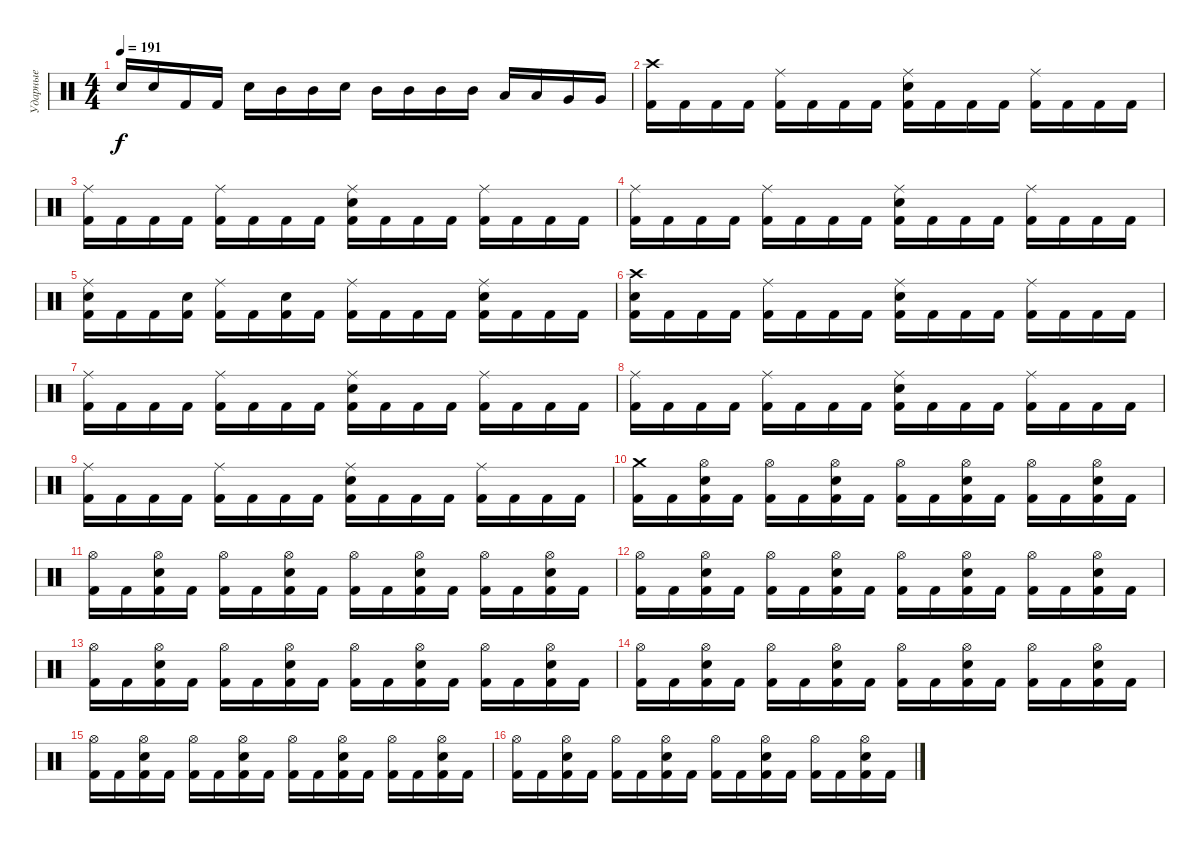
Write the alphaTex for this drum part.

\track ("Ударные" "Ударные") {instrument percussion}
\staff {score}
\articulation defaults
\ts (4 4)
\tempo 191
\clef neutral
\ks c "Snare (hit) 2".16{dy f} "Snare (hit) 2".16 "Kick (hit) 2".16 "Kick (hit) 2".16 "Snare (hit) 2".16 "Mid Tom (hit)".16 "Mid Tom (hit)".16 "Snare (hit) 2".16 "Mid Tom (hit)".16 "Mid Tom (hit)".16 "Mid Tom (hit)".16 "Mid Tom (hit)".16 "Low Tom (hit)".16 "Low Tom (hit)".16 "Very Low Tom (hit)".16 "Very Low Tom (hit)".16
|
("Crash high (hit)" "Kick (hit) 2").16 "Kick (hit) 2".16 "Kick (hit) 2".16 "Kick (hit) 2".16 ("Ride (middle)" "Kick (hit) 2").16 "Kick (hit) 2".16 "Kick (hit) 2".16 "Kick (hit) 2".16 ("Ride (middle)" "Snare (hit) 2" "Kick (hit) 2").16 "Kick (hit) 2".16 "Kick (hit) 2".16 "Kick (hit) 2".16 ("Ride (middle)" "Kick (hit) 2").16 "Kick (hit) 2".16 "Kick (hit) 2".16 "Kick (hit) 2".16 |
("Ride (middle)" "Kick (hit) 2").16 "Kick (hit) 2".16 "Kick (hit) 2".16 "Kick (hit) 2".16 ("Ride (middle)" "Kick (hit) 2").16 "Kick (hit) 2".16 "Kick (hit) 2".16 "Kick (hit) 2".16 ("Ride (middle)" "Snare (hit) 2" "Kick (hit) 2").16 "Kick (hit) 2".16 "Kick (hit) 2".16 "Kick (hit) 2".16 ("Ride (middle)" "Kick (hit) 2").16 "Kick (hit) 2".16 "Kick (hit) 2".16 "Kick (hit) 2".16 |
("Ride (middle)" "Kick (hit) 2").16 "Kick (hit) 2".16 "Kick (hit) 2".16 "Kick (hit) 2".16 ("Ride (middle)" "Kick (hit) 2").16 "Kick (hit) 2".16 "Kick (hit) 2".16 "Kick (hit) 2".16 ("Ride (middle)" "Snare (hit) 2" "Kick (hit) 2").16 "Kick (hit) 2".16 "Kick (hit) 2".16 "Kick (hit) 2".16 ("Ride (middle)" "Kick (hit) 2").16 "Kick (hit) 2".16 "Kick (hit) 2".16 "Kick (hit) 2".16 |
("Ride (middle)" "Snare (hit) 2" "Kick (hit) 2").16 "Kick (hit) 2".16 "Kick (hit) 2".16 ("Snare (hit) 2" "Kick (hit) 2").16 ("Ride (middle)" "Kick (hit) 2").16 "Kick (hit) 2".16 ("Snare (hit) 2" "Kick (hit) 2").16 "Kick (hit) 2".16 ("Ride (middle)" "Kick (hit) 2").16 "Kick (hit) 2".16 "Kick (hit) 2".16 "Kick (hit) 2".16 ("Ride (middle)" "Snare (hit) 2" "Kick (hit) 2").16 "Kick (hit) 2".16 "Kick (hit) 2".16 "Kick (hit) 2".16 |
("Crash high (hit)" "Snare (hit) 2" "Kick (hit) 2").16 "Kick (hit) 2".16 "Kick (hit) 2".16 "Kick (hit) 2".16 ("Ride (middle)" "Kick (hit) 2").16 "Kick (hit) 2".16 "Kick (hit) 2".16 "Kick (hit) 2".16 ("Ride (middle)" "Snare (hit) 2" "Kick (hit) 2").16 "Kick (hit) 2".16 "Kick (hit) 2".16 "Kick (hit) 2".16 ("Ride (middle)" "Kick (hit) 2").16 "Kick (hit) 2".16 "Kick (hit) 2".16 "Kick (hit) 2".16 |
("Ride (middle)" "Kick (hit) 2").16 "Kick (hit) 2".16 "Kick (hit) 2".16 "Kick (hit) 2".16 ("Ride (middle)" "Kick (hit) 2").16 "Kick (hit) 2".16 "Kick (hit) 2".16 "Kick (hit) 2".16 ("Ride (middle)" "Snare (hit) 2" "Kick (hit) 2").16 "Kick (hit) 2".16 "Kick (hit) 2".16 "Kick (hit) 2".16 ("Ride (middle)" "Kick (hit) 2").16 "Kick (hit) 2".16 "Kick (hit) 2".16 "Kick (hit) 2".16 |
("Ride (middle)" "Kick (hit) 2").16 "Kick (hit) 2".16 "Kick (hit) 2".16 "Kick (hit) 2".16 ("Ride (middle)" "Kick (hit) 2").16 "Kick (hit) 2".16 "Kick (hit) 2".16 "Kick (hit) 2".16 ("Ride (middle)" "Snare (hit) 2" "Kick (hit) 2").16 "Kick (hit) 2".16 "Kick (hit) 2".16 "Kick (hit) 2".16 ("Ride (middle)" "Kick (hit) 2").16 "Kick (hit) 2".16 "Kick (hit) 2".16 "Kick (hit) 2".16 |
("Ride (middle)" "Kick (hit) 2").16 "Kick (hit) 2".16 "Kick (hit) 2".16 "Kick (hit) 2".16 ("Ride (middle)" "Kick (hit) 2").16 "Kick (hit) 2".16 "Kick (hit) 2".16 "Kick (hit) 2".16 ("Ride (middle)" "Snare (hit) 2" "Kick (hit) 2").16 "Kick (hit) 2".16 "Kick (hit) 2".16 "Kick (hit) 2".16 ("Ride (middle)" "Kick (hit) 2").16 "Kick (hit) 2".16 "Kick (hit) 2".16 "Kick (hit) 2".16 |
("Crash medium (hit)" "Kick (hit) 2").16 "Kick (hit) 2".16 ("Hi-Hat (open)" "Snare (hit) 2" "Kick (hit) 2").16 "Kick (hit) 2".16 ("Hi-Hat (open)" "Kick (hit) 2").16 "Kick (hit) 2".16 ("Hi-Hat (open)" "Snare (hit) 2" "Kick (hit) 2").16 "Kick (hit) 2".16 ("Hi-Hat (open)" "Kick (hit) 2").16 "Kick (hit) 2".16 ("Hi-Hat (open)" "Snare (hit) 2" "Kick (hit) 2").16 "Kick (hit) 2".16 ("Hi-Hat (open)" "Kick (hit) 2").16 "Kick (hit) 2".16 ("Hi-Hat (open)" "Snare (hit) 2" "Kick (hit) 2").16 "Kick (hit) 2".16 |
("Hi-Hat (open)" "Kick (hit) 2").16 "Kick (hit) 2".16 ("Hi-Hat (open)" "Snare (hit) 2" "Kick (hit) 2").16 "Kick (hit) 2".16 ("Hi-Hat (open)" "Kick (hit) 2").16 "Kick (hit) 2".16 ("Hi-Hat (open)" "Snare (hit) 2" "Kick (hit) 2").16 "Kick (hit) 2".16 ("Hi-Hat (open)" "Kick (hit) 2").16 "Kick (hit) 2".16 ("Hi-Hat (open)" "Snare (hit) 2" "Kick (hit) 2").16 "Kick (hit) 2".16 ("Hi-Hat (open)" "Kick (hit) 2").16 "Kick (hit) 2".16 ("Hi-Hat (open)" "Snare (hit) 2" "Kick (hit) 2").16 "Kick (hit) 2".16 |
("Hi-Hat (open)" "Kick (hit) 2").16 "Kick (hit) 2".16 ("Hi-Hat (open)" "Snare (hit) 2" "Kick (hit) 2").16 "Kick (hit) 2".16 ("Hi-Hat (open)" "Kick (hit) 2").16 "Kick (hit) 2".16 ("Hi-Hat (open)" "Snare (hit) 2" "Kick (hit) 2").16 "Kick (hit) 2".16 ("Hi-Hat (open)" "Kick (hit) 2").16 "Kick (hit) 2".16 ("Hi-Hat (open)" "Snare (hit) 2" "Kick (hit) 2").16 "Kick (hit) 2".16 ("Hi-Hat (open)" "Kick (hit) 2").16 "Kick (hit) 2".16 ("Hi-Hat (open)" "Snare (hit) 2" "Kick (hit) 2").16 "Kick (hit) 2".16 |
("Hi-Hat (open)" "Kick (hit) 2").16 "Kick (hit) 2".16 ("Hi-Hat (open)" "Snare (hit) 2" "Kick (hit) 2").16 "Kick (hit) 2".16 ("Hi-Hat (open)" "Kick (hit) 2").16 "Kick (hit) 2".16 ("Hi-Hat (open)" "Snare (hit) 2" "Kick (hit) 2").16 "Kick (hit) 2".16 ("Hi-Hat (open)" "Kick (hit) 2").16 "Kick (hit) 2".16 ("Hi-Hat (open)" "Snare (hit) 2" "Kick (hit) 2").16 "Kick (hit) 2".16 ("Hi-Hat (open)" "Kick (hit) 2").16 "Kick (hit) 2".16 ("Hi-Hat (open)" "Snare (hit) 2" "Kick (hit) 2").16 "Kick (hit) 2".16 |
("Hi-Hat (open)" "Kick (hit) 2").16 "Kick (hit) 2".16 ("Hi-Hat (open)" "Snare (hit) 2" "Kick (hit) 2").16 "Kick (hit) 2".16 ("Hi-Hat (open)" "Kick (hit) 2").16 "Kick (hit) 2".16 ("Hi-Hat (open)" "Snare (hit) 2" "Kick (hit) 2").16 "Kick (hit) 2".16 ("Hi-Hat (open)" "Kick (hit) 2").16 "Kick (hit) 2".16 ("Hi-Hat (open)" "Snare (hit) 2" "Kick (hit) 2").16 "Kick (hit) 2".16 ("Hi-Hat (open)" "Kick (hit) 2").16 "Kick (hit) 2".16 ("Hi-Hat (open)" "Snare (hit) 2" "Kick (hit) 2").16 "Kick (hit) 2".16 |
("Hi-Hat (open)" "Kick (hit) 2").16 "Kick (hit) 2".16 ("Hi-Hat (open)" "Snare (hit) 2" "Kick (hit) 2").16 "Kick (hit) 2".16 ("Hi-Hat (open)" "Kick (hit) 2").16 "Kick (hit) 2".16 ("Hi-Hat (open)" "Snare (hit) 2" "Kick (hit) 2").16 "Kick (hit) 2".16 ("Hi-Hat (open)" "Kick (hit) 2").16 "Kick (hit) 2".16 ("Hi-Hat (open)" "Snare (hit) 2" "Kick (hit) 2").16 "Kick (hit) 2".16 ("Hi-Hat (open)" "Kick (hit) 2").16 "Kick (hit) 2".16 ("Hi-Hat (open)" "Snare (hit) 2" "Kick (hit) 2").16 "Kick (hit) 2".16 |
("Hi-Hat (open)" "Kick (hit) 2").16 "Kick (hit) 2".16 ("Hi-Hat (open)" "Snare (hit) 2" "Kick (hit) 2").16 "Kick (hit) 2".16 ("Hi-Hat (open)" "Kick (hit) 2").16 "Kick (hit) 2".16 ("Hi-Hat (open)" "Snare (hit) 2" "Kick (hit) 2").16 "Kick (hit) 2".16 ("Hi-Hat (open)" "Kick (hit) 2").16 "Kick (hit) 2".16 ("Hi-Hat (open)" "Snare (hit) 2" "Kick (hit) 2").16 "Kick (hit) 2".16 ("Hi-Hat (open)" "Kick (hit) 2").16 "Kick (hit) 2".16 ("Hi-Hat (open)" "Snare (hit) 2" "Kick (hit) 2").16 "Kick (hit) 2".16
